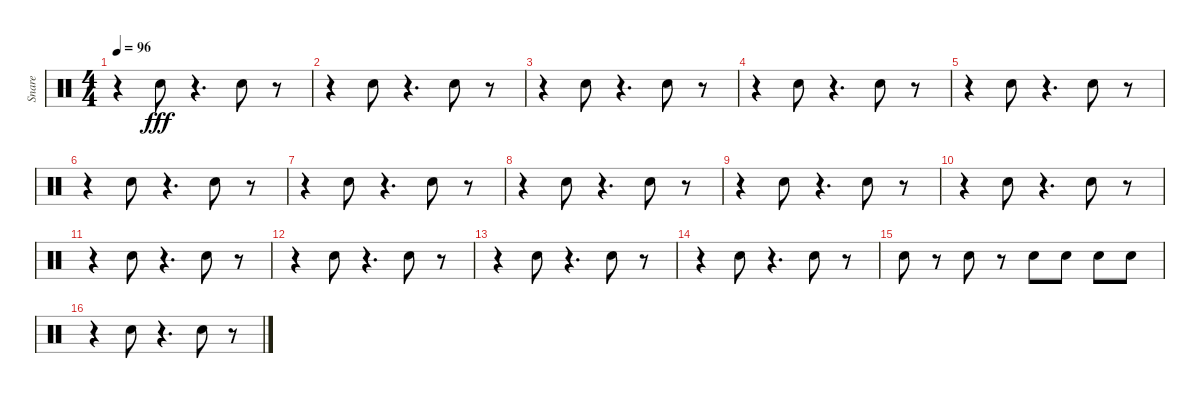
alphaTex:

\track ("Snare" "Snare") {instrument percussion}
\staff {score}
\articulation defaults
\ts (4 4)
\tempo 96
\clef neutral
\ks c
r.4{dy fff} "Snare (hit) 2".8 r.4{d} "Snare (hit) 2".8 r.8 |
r.4 "Snare (hit) 2".8 r.4{d} "Snare (hit) 2".8 r.8 |
r.4 "Snare (hit) 2".8 r.4{d} "Snare (hit) 2".8 r.8 |
r.4 "Snare (hit) 2".8 r.4{d} "Snare (hit) 2".8 r.8 |
r.4 "Snare (hit) 2".8 r.4{d} "Snare (hit) 2".8 r.8 |
r.4 "Snare (hit) 2".8 r.4{d} "Snare (hit) 2".8 r.8 |
r.4 "Snare (hit) 2".8 r.4{d} "Snare (hit) 2".8 r.8 |
r.4 "Snare (hit) 2".8 r.4{d} "Snare (hit) 2".8 r.8 |
r.4 "Snare (hit) 2".8 r.4{d} "Snare (hit) 2".8 r.8 |
r.4 "Snare (hit) 2".8 r.4{d} "Snare (hit) 2".8 r.8 |
r.4 "Snare (hit) 2".8 r.4{d} "Snare (hit) 2".8 r.8 |
r.4 "Snare (hit) 2".8 r.4{d} "Snare (hit) 2".8 r.8 |
r.4 "Snare (hit) 2".8 r.4{d} "Snare (hit) 2".8 r.8 |
r.4 "Snare (hit) 2".8 r.4{d} "Snare (hit) 2".8 r.8 |
"Snare (hit) 2".8 r.8 "Snare (hit) 2".8 r.8 "Snare (hit) 2".8 "Snare (hit) 2".8 "Snare (hit) 2".8 "Snare (hit) 2".8 |
r.4 "Snare (hit) 2".8 r.4{d} "Snare (hit) 2".8 r.8
